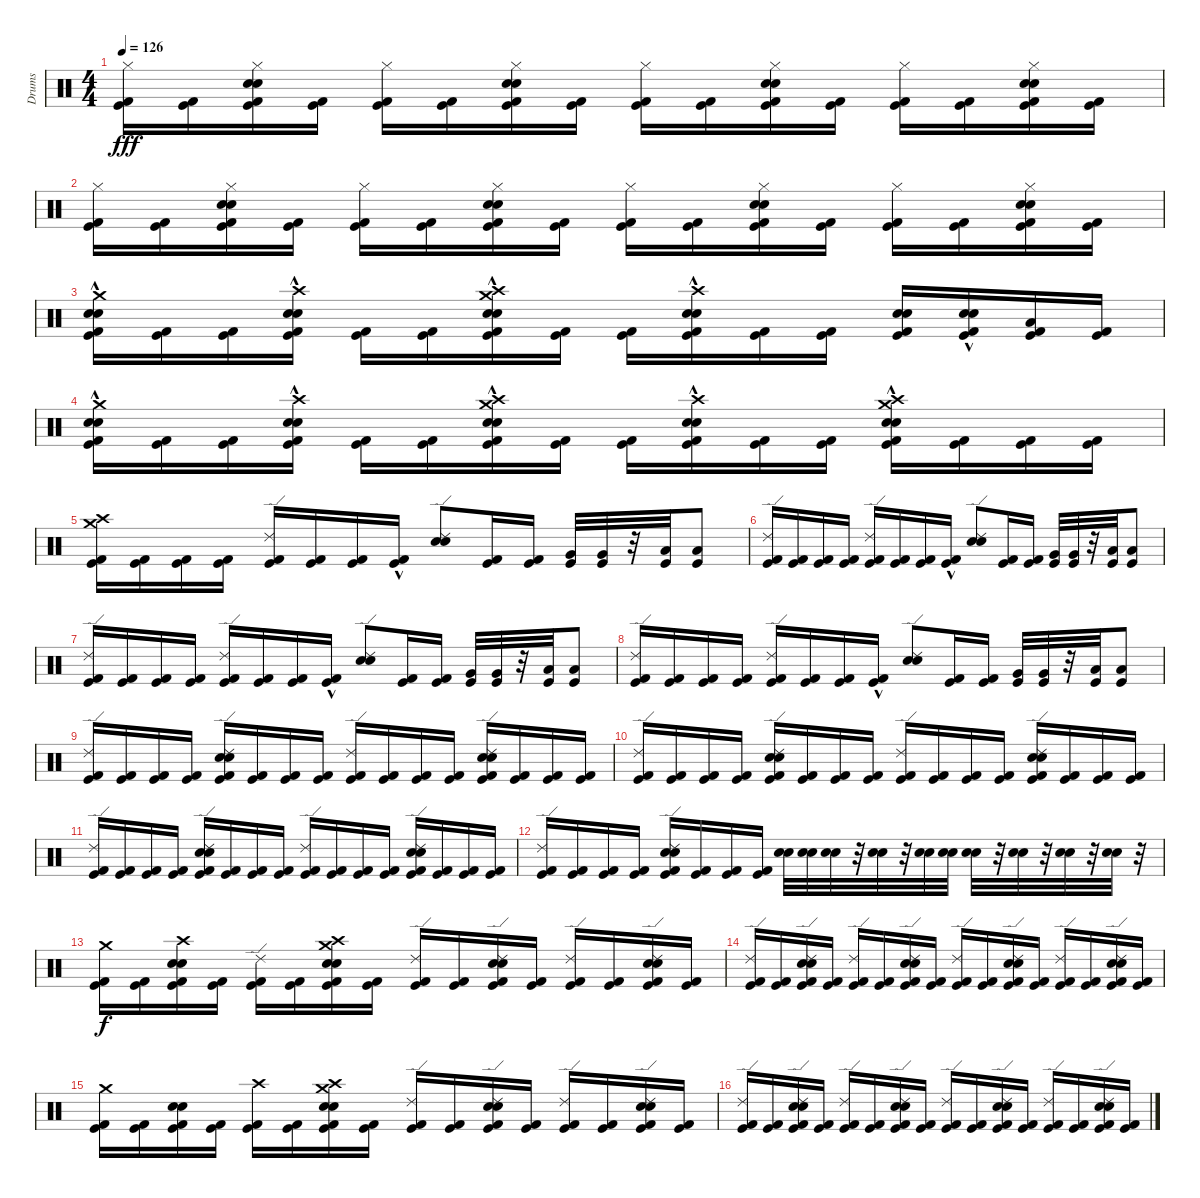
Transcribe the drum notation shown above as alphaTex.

\track ("Drums" "Drums") {instrument percussion}
\staff {score}
\articulation defaults
\ts (4 4)
\tempo 126
\clef neutral
\ks c
("Hi-Hat (closed)" "Kick (hit) 2" "Kick (hit)").16{dy fff} ("Kick (hit) 2" "Kick (hit)").16 ("Hi-Hat (closed)" "Electric Snare (hit)" "Kick (hit) 2" "Snare (hit) 2" "Kick (hit)").16 ("Kick (hit) 2" "Kick (hit)").16 ("Hi-Hat (closed)" "Kick (hit) 2" "Kick (hit)").16 ("Kick (hit) 2" "Kick (hit)").16 ("Hi-Hat (closed)" "Electric Snare (hit)" "Snare (hit) 2" "Kick (hit) 2" "Kick (hit)").16 ("Kick (hit) 2" "Kick (hit)").16 ("Hi-Hat (closed)" "Kick (hit) 2" "Kick (hit)").16 ("Kick (hit) 2" "Kick (hit)").16 ("Hi-Hat (closed)" "Electric Snare (hit)" "Kick (hit) 2" "Snare (hit) 2" "Kick (hit)").16 ("Kick (hit) 2" "Kick (hit)").16 ("Hi-Hat (closed)" "Kick (hit) 2" "Kick (hit)").16 ("Kick (hit) 2" "Kick (hit)").16 ("Hi-Hat (closed)" "Electric Snare (hit)" "Snare (hit) 2" "Kick (hit) 2" "Kick (hit)").16 ("Kick (hit) 2" "Kick (hit)").16 |
("Hi-Hat (closed)" "Kick (hit) 2" "Kick (hit)").16 ("Kick (hit) 2" "Kick (hit)").16 ("Hi-Hat (closed)" "Electric Snare (hit)" "Kick (hit) 2" "Snare (hit) 2" "Kick (hit)").16 ("Kick (hit) 2" "Kick (hit)").16 ("Hi-Hat (closed)" "Kick (hit) 2" "Kick (hit)").16 ("Kick (hit) 2" "Kick (hit)").16 ("Hi-Hat (closed)" "Electric Snare (hit)" "Snare (hit) 2" "Kick (hit) 2" "Kick (hit)").16 ("Kick (hit) 2" "Kick (hit)").16 ("Hi-Hat (closed)" "Kick (hit) 2" "Kick (hit)").16 ("Kick (hit) 2" "Kick (hit)").16 ("Hi-Hat (closed)" "Electric Snare (hit)" "Kick (hit) 2" "Snare (hit) 2" "Kick (hit)").16 ("Kick (hit) 2" "Kick (hit)").16 ("Hi-Hat (closed)" "Kick (hit) 2" "Kick (hit)").16 ("Kick (hit) 2" "Kick (hit)").16 ("Hi-Hat (closed)" "Electric Snare (hit)" "Snare (hit) 2" "Kick (hit) 2" "Kick (hit)").16 ("Kick (hit) 2" "Kick (hit)").16 |
("Crash medium (hit)"{hac} "Electric Snare (hit)"{hac} "Snare (hit) 2"{hac} "Kick (hit) 2" "Kick (hit)").16 ("Kick (hit) 2" "Kick (hit)").16 ("Kick (hit) 2" "Kick (hit)").16 ("Crash high (hit)"{hac} "Electric Snare (hit)"{hac} "Snare (hit) 2"{hac} "Kick (hit) 2" "Kick (hit)").16 ("Kick (hit) 2" "Kick (hit)").16 ("Kick (hit) 2" "Kick (hit)").16 ("Crash high (hit)"{hac} "Crash medium (hit)" "Electric Snare (hit)"{hac} "Snare (hit) 2"{hac} "Kick (hit) 2" "Kick (hit)").16 ("Kick (hit) 2" "Kick (hit)").16 ("Kick (hit) 2" "Kick (hit)").16 ("Crash high (hit)" "Electric Snare (hit)"{hac} "Snare (hit) 2"{hac} "Kick (hit) 2" "Kick (hit)").16 ("Kick (hit) 2" "Kick (hit)").16 ("Kick (hit) 2" "Kick (hit)").16 ("Electric Snare (hit)" "Snare (hit) 2" "Kick (hit) 2" "Kick (hit)").16 ("Electric Snare (hit)"{hac} "Snare (hit) 2"{hac} "Kick (hit) 2" "Kick (hit)").16 ("Low Floor Tom (hit)" "Kick (hit) 2" "Kick (hit)").16 ("Kick (hit) 2" "Kick (hit)").16 |
("Crash medium (hit)"{hac} "Electric Snare (hit)"{hac} "Snare (hit) 2"{hac} "Kick (hit) 2" "Kick (hit)").16 ("Kick (hit) 2" "Kick (hit)").16 ("Kick (hit) 2" "Kick (hit)").16 ("Crash high (hit)"{hac} "Electric Snare (hit)"{hac} "Snare (hit) 2"{hac} "Kick (hit) 2" "Kick (hit)").16 ("Kick (hit) 2" "Kick (hit)").16 ("Kick (hit) 2" "Kick (hit)").16 ("Crash high (hit)"{hac} "Crash medium (hit)"{hac} "Electric Snare (hit)"{hac} "Snare (hit) 2"{hac} "Kick (hit) 2" "Kick (hit)").16 ("Kick (hit) 2" "Kick (hit)").16 ("Kick (hit) 2" "Kick (hit)").16 ("Crash high (hit)"{hac} "Electric Snare (hit)"{hac} "Snare (hit) 2"{hac} "Kick (hit) 2" "Kick (hit)").16 ("Kick (hit) 2" "Kick (hit)").16 ("Kick (hit) 2" "Kick (hit)").16 ("Crash high (hit)" "Crash medium (hit)" "Electric Snare (hit)"{hac} "Snare (hit) 2"{hac} "Kick (hit) 2" "Kick (hit)").16 ("Kick (hit) 2" "Kick (hit)").16 ("Kick (hit) 2" "Kick (hit)").16 ("Kick (hit) 2" "Kick (hit)").16 |
("Crash high (hit)" "Crash medium (hit)" "Kick (hit) 2" "Kick (hit)").16 ("Kick (hit) 2" "Kick (hit)").16 ("Kick (hit) 2" "Kick (hit)").16 ("Kick (hit) 2" "Kick (hit)").16 ("Ride (edge) 2" "Kick (hit) 2" "Kick (hit)").16 ("Kick (hit) 2" "Kick (hit)").16 ("Kick (hit) 2" "Kick (hit)").16 ("Kick (hit) 2"{hac} "Kick (hit)"{hac}).16 ("Electric Snare (hit)" "Snare (hit) 2" "Ride (edge) 2").8 ("Kick (hit) 2" "Kick (hit)").16 ("Kick (hit) 2" "Kick (hit)").16 ("Kick (hit)" "Very Low Tom (hit)").32 ("Kick (hit)" "Very Low Tom (hit)").32 r.32 ("Kick (hit)" "Low Floor Tom (hit)").32 ("Kick (hit)" "Low Floor Tom (hit)").8 |
("Ride (edge) 2" "Kick (hit) 2" "Kick (hit)").16 ("Kick (hit) 2" "Kick (hit)").16 ("Kick (hit) 2" "Kick (hit)").16 ("Kick (hit) 2" "Kick (hit)").16 ("Ride (edge) 2" "Kick (hit) 2" "Kick (hit)").16 ("Kick (hit) 2" "Kick (hit)").16 ("Kick (hit) 2" "Kick (hit)").16 ("Kick (hit) 2"{hac} "Kick (hit)"{hac}).16 ("Electric Snare (hit)" "Snare (hit) 2" "Ride (edge) 2").8 ("Kick (hit) 2" "Kick (hit)").16 ("Kick (hit) 2" "Kick (hit)").16 ("Kick (hit)" "Very Low Tom (hit)").32 ("Kick (hit)" "Very Low Tom (hit)").32 r.32 ("Kick (hit)" "Low Floor Tom (hit)").32 ("Kick (hit)" "Low Floor Tom (hit)").8 |
("Ride (edge) 2" "Kick (hit) 2" "Kick (hit)").16 ("Kick (hit) 2" "Kick (hit)").16 ("Kick (hit) 2" "Kick (hit)").16 ("Kick (hit) 2" "Kick (hit)").16 ("Ride (edge) 2" "Kick (hit) 2" "Kick (hit)").16 ("Kick (hit) 2" "Kick (hit)").16 ("Kick (hit) 2" "Kick (hit)").16 ("Kick (hit) 2"{hac} "Kick (hit)"{hac}).16 ("Electric Snare (hit)" "Snare (hit) 2" "Ride (edge) 2").8 ("Kick (hit) 2" "Kick (hit)").16 ("Kick (hit) 2" "Kick (hit)").16 ("Kick (hit)" "Very Low Tom (hit)").32 ("Kick (hit)" "Very Low Tom (hit)").32 r.32 ("Kick (hit)" "Low Floor Tom (hit)").32 ("Kick (hit)" "Low Floor Tom (hit)").8 |
("Ride (edge) 2" "Kick (hit) 2" "Kick (hit)").16 ("Kick (hit) 2" "Kick (hit)").16 ("Kick (hit) 2" "Kick (hit)").16 ("Kick (hit) 2" "Kick (hit)").16 ("Ride (edge) 2" "Kick (hit) 2" "Kick (hit)").16 ("Kick (hit) 2" "Kick (hit)").16 ("Kick (hit) 2" "Kick (hit)").16 ("Kick (hit) 2"{hac} "Kick (hit)"{hac}).16 ("Electric Snare (hit)" "Snare (hit) 2" "Ride (edge) 2").8 ("Kick (hit) 2" "Kick (hit)").16 ("Kick (hit) 2" "Kick (hit)").16 ("Kick (hit)" "Very Low Tom (hit)").32 ("Kick (hit)" "Very Low Tom (hit)").32 r.32 ("Kick (hit)" "Low Floor Tom (hit)").32 ("Kick (hit)" "Low Floor Tom (hit)").8 |
("Ride (edge) 2" "Kick (hit) 2" "Kick (hit)").16 ("Kick (hit) 2" "Kick (hit)").16 ("Kick (hit) 2" "Kick (hit)").16 ("Kick (hit) 2" "Kick (hit)").16 ("Electric Snare (hit)" "Snare (hit) 2" "Ride (edge) 2" "Kick (hit) 2" "Kick (hit)").16 ("Kick (hit) 2" "Kick (hit)").16 ("Kick (hit)" "Kick (hit) 2").16 ("Kick (hit) 2" "Kick (hit)").16 ("Ride (edge) 2" "Kick (hit)" "Kick (hit) 2").16 ("Kick (hit) 2" "Kick (hit)").16 ("Kick (hit) 2" "Kick (hit)").16 ("Kick (hit) 2" "Kick (hit)").16 ("Electric Snare (hit)" "Snare (hit) 2" "Ride (edge) 2" "Kick (hit) 2" "Kick (hit)").16 ("Kick (hit) 2" "Kick (hit)").16 ("Kick (hit) 2" "Kick (hit)").16 ("Kick (hit) 2" "Kick (hit)").16 |
("Ride (edge) 2" "Kick (hit) 2" "Kick (hit)").16 ("Kick (hit) 2" "Kick (hit)").16 ("Kick (hit) 2" "Kick (hit)").16 ("Kick (hit) 2" "Kick (hit)").16 ("Electric Snare (hit)" "Snare (hit) 2" "Ride (edge) 2" "Kick (hit) 2" "Kick (hit)").16 ("Kick (hit) 2" "Kick (hit)").16 ("Kick (hit)" "Kick (hit) 2").16 ("Kick (hit) 2" "Kick (hit)").16 ("Ride (edge) 2" "Kick (hit)" "Kick (hit) 2").16 ("Kick (hit) 2" "Kick (hit)").16 ("Kick (hit) 2" "Kick (hit)").16 ("Kick (hit) 2" "Kick (hit)").16 ("Electric Snare (hit)" "Snare (hit) 2" "Ride (edge) 2" "Kick (hit) 2" "Kick (hit)").16 ("Kick (hit) 2" "Kick (hit)").16 ("Kick (hit) 2" "Kick (hit)").16 ("Kick (hit) 2" "Kick (hit)").16 |
("Ride (edge) 2" "Kick (hit) 2" "Kick (hit)").16 ("Kick (hit) 2" "Kick (hit)").16 ("Kick (hit) 2" "Kick (hit)").16 ("Kick (hit) 2" "Kick (hit)").16 ("Electric Snare (hit)" "Snare (hit) 2" "Ride (edge) 2" "Kick (hit) 2" "Kick (hit)").16 ("Kick (hit) 2" "Kick (hit)").16 ("Kick (hit)" "Kick (hit) 2").16 ("Kick (hit) 2" "Kick (hit)").16 ("Ride (edge) 2" "Kick (hit)" "Kick (hit) 2").16 ("Kick (hit) 2" "Kick (hit)").16 ("Kick (hit) 2" "Kick (hit)").16 ("Kick (hit) 2" "Kick (hit)").16 ("Electric Snare (hit)" "Snare (hit) 2" "Ride (edge) 2" "Kick (hit) 2" "Kick (hit)").16 ("Kick (hit) 2" "Kick (hit)").16 ("Kick (hit) 2" "Kick (hit)").16 ("Kick (hit) 2" "Kick (hit)").16 |
("Ride (edge) 2" "Kick (hit) 2" "Kick (hit)").16 ("Kick (hit) 2" "Kick (hit)").16 ("Kick (hit) 2" "Kick (hit)").16 ("Kick (hit) 2" "Kick (hit)").16 ("Electric Snare (hit)" "Snare (hit) 2" "Ride (edge) 2" "Kick (hit) 2" "Kick (hit)").16 ("Kick (hit) 2" "Kick (hit)").16 ("Kick (hit)" "Kick (hit) 2").16 ("Kick (hit) 2" "Kick (hit)").16 ("Electric Snare (hit)" "Snare (hit) 2").32 ("Electric Snare (hit)" "Snare (hit) 2").32 ("Electric Snare (hit)" "Snare (hit) 2").32 r.32 ("Electric Snare (hit)" "Snare (hit) 2").32 r.32 ("Electric Snare (hit)" "Snare (hit) 2").32 ("Electric Snare (hit)" "Snare (hit) 2").32 ("Electric Snare (hit)" "Snare (hit) 2").32 r.32 ("Electric Snare (hit)" "Snare (hit) 2").32 r.32 ("Electric Snare (hit)" "Snare (hit) 2").32 r.32 ("Electric Snare (hit)" "Snare (hit) 2").32 r.32 |
("Crash medium (hit)" "Kick (hit) 2" "Kick (hit)").16{dy f} ("Kick (hit) 2" "Kick (hit)").16 ("Crash high (hit)" "Electric Snare (hit)" "Snare (hit) 2" "Kick (hit) 2" "Kick (hit)").16 ("Kick (hit) 2" "Kick (hit)").16 ("Ride (edge) 2" "Kick (hit) 2" "Kick (hit)").16 ("Kick (hit) 2" "Kick (hit)").16 ("Crash medium (hit)" "Crash high (hit)" "Electric Snare (hit)" "Snare (hit) 2" "Kick (hit) 2" "Kick (hit)").16 ("Kick (hit) 2" "Kick (hit)").16 ("Ride (edge) 2" "Kick (hit) 2" "Kick (hit)").16 ("Kick (hit) 2" "Kick (hit)").16 ("Electric Snare (hit)" "Snare (hit) 2" "Ride (edge) 2" "Kick (hit) 2" "Kick (hit)").16 ("Kick (hit) 2" "Kick (hit)").16 ("Ride (edge) 2" "Kick (hit) 2" "Kick (hit)").16 ("Kick (hit) 2" "Kick (hit)").16 ("Electric Snare (hit)" "Snare (hit) 2" "Ride (edge) 2" "Kick (hit) 2" "Kick (hit)").16 ("Kick (hit) 2" "Kick (hit)").16 |
("Ride (edge) 2" "Kick (hit) 2" "Kick (hit)").16 ("Kick (hit) 2" "Kick (hit)").16 ("Electric Snare (hit)" "Snare (hit) 2" "Ride (edge) 2" "Kick (hit) 2" "Kick (hit)").16 ("Kick (hit) 2" "Kick (hit)").16 ("Ride (edge) 2" "Kick (hit) 2" "Kick (hit)").16 ("Kick (hit) 2" "Kick (hit)").16 ("Electric Snare (hit)" "Snare (hit) 2" "Ride (edge) 2" "Kick (hit) 2" "Kick (hit)").16 ("Kick (hit) 2" "Kick (hit)").16 ("Ride (edge) 2" "Kick (hit) 2" "Kick (hit)").16 ("Kick (hit) 2" "Kick (hit)").16 ("Electric Snare (hit)" "Snare (hit) 2" "Ride (edge) 2" "Kick (hit) 2" "Kick (hit)").16 ("Kick (hit) 2" "Kick (hit)").16 ("Ride (edge) 2" "Kick (hit) 2" "Kick (hit)").16 ("Kick (hit) 2" "Kick (hit)").16 ("Electric Snare (hit)" "Snare (hit) 2" "Ride (edge) 2" "Kick (hit) 2" "Kick (hit)").16 ("Kick (hit) 2" "Kick (hit)").16 |
("Crash medium (hit)" "Kick (hit) 2" "Kick (hit)").16 ("Kick (hit) 2" "Kick (hit)").16 ("Electric Snare (hit)" "Snare (hit) 2" "Kick (hit) 2" "Kick (hit)").16 ("Kick (hit) 2" "Kick (hit)").16 ("Crash high (hit)" "Kick (hit) 2" "Kick (hit)").16 ("Kick (hit) 2" "Kick (hit)").16 ("Crash high (hit)" "Crash medium (hit)" "Electric Snare (hit)" "Snare (hit) 2" "Kick (hit) 2" "Kick (hit)").16 ("Kick (hit) 2" "Kick (hit)").16 ("Ride (edge) 2" "Kick (hit) 2" "Kick (hit)").16 ("Kick (hit) 2" "Kick (hit)").16 ("Electric Snare (hit)" "Snare (hit) 2" "Ride (edge) 2" "Kick (hit) 2" "Kick (hit)").16 ("Kick (hit) 2" "Kick (hit)").16 ("Ride (edge) 2" "Kick (hit) 2" "Kick (hit)").16 ("Kick (hit) 2" "Kick (hit)").16 ("Electric Snare (hit)" "Snare (hit) 2" "Ride (edge) 2" "Kick (hit) 2" "Kick (hit)").16 ("Kick (hit) 2" "Kick (hit)").16 |
("Ride (edge) 2" "Kick (hit) 2" "Kick (hit)").16 ("Kick (hit) 2" "Kick (hit)").16 ("Electric Snare (hit)" "Snare (hit) 2" "Ride (edge) 2" "Kick (hit) 2" "Kick (hit)").16 ("Kick (hit) 2" "Kick (hit)").16 ("Ride (edge) 2" "Kick (hit) 2" "Kick (hit)").16 ("Kick (hit) 2" "Kick (hit)").16 ("Electric Snare (hit)" "Snare (hit) 2" "Ride (edge) 2" "Kick (hit) 2" "Kick (hit)").16 ("Kick (hit) 2" "Kick (hit)").16 ("Ride (edge) 2" "Kick (hit) 2" "Kick (hit)").16 ("Kick (hit) 2" "Kick (hit)").16 ("Electric Snare (hit)" "Snare (hit) 2" "Ride (edge) 2" "Kick (hit) 2" "Kick (hit)").16 ("Kick (hit) 2" "Kick (hit)").16 ("Ride (edge) 2" "Kick (hit) 2" "Kick (hit)").16 ("Kick (hit) 2" "Kick (hit)").16 ("Electric Snare (hit)" "Snare (hit) 2" "Ride (edge) 2" "Kick (hit) 2" "Kick (hit)").16 ("Kick (hit) 2" "Kick (hit)").16
